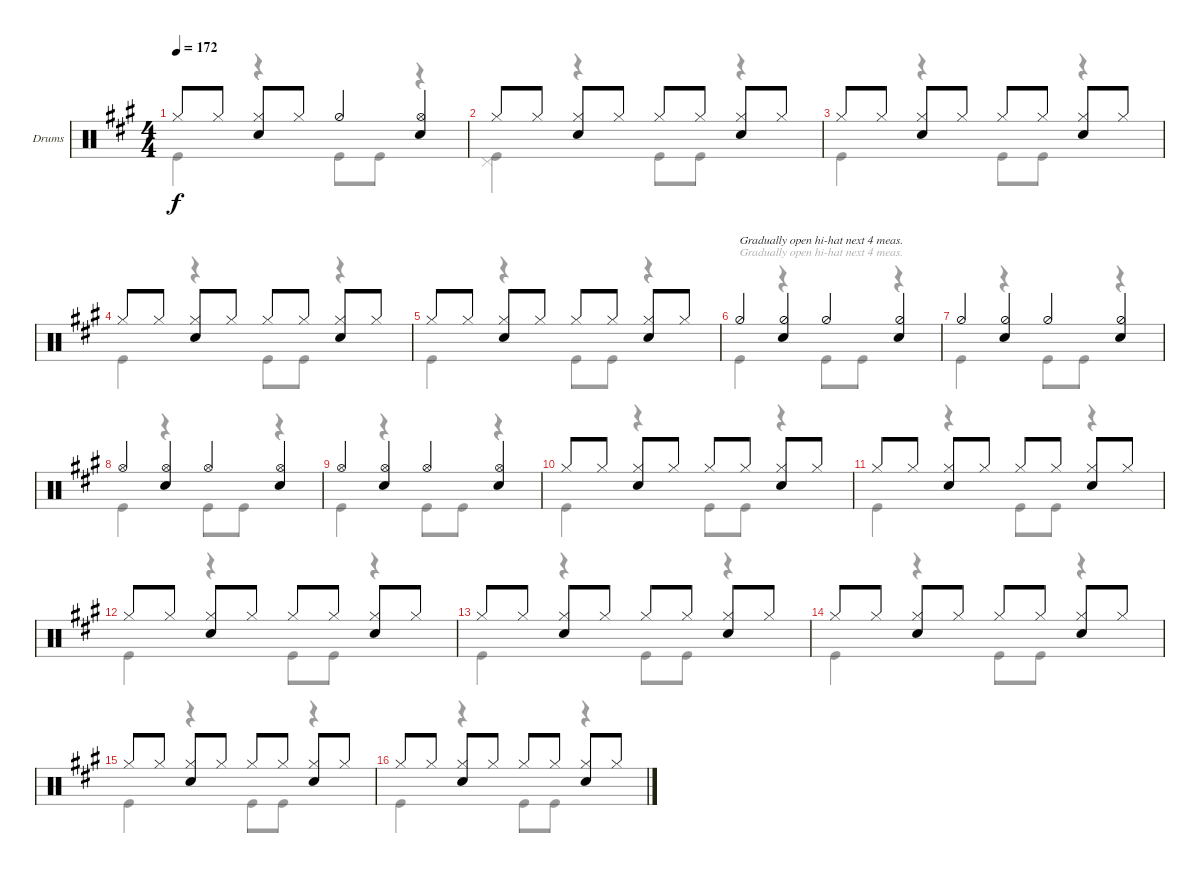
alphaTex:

\defaultSystemsLayout 4
\bracketExtendMode groupsimilarinstruments
\firstSystemTrackNameOrientation horizontal
\otherSystemsTrackNameOrientation horizontal
\track ("Taylor Hawkins" "Drums") {instrument percussion}
\staff {score}
\articulation defaults
\voice
\ts (4 4)
\tempo 172
\clef neutral
\scale
0.333333
\ks a "Hi-Hat (closed)".8{dy f} "Hi-Hat (closed)".8
("Hi-Hat (closed)" "Snare (hit) 2").8 "Hi-Hat (closed)".8 "Hi-Hat (half)".4 ("Hi-Hat (open)" "Snare (hit) 2").4 |
\scale
0.333333 "Hi-Hat (closed)".8 "Hi-Hat (closed)".8 ("Hi-Hat (closed)" "Snare (hit) 2").8 "Hi-Hat (closed)".8 "Hi-Hat (closed)".8 "Hi-Hat (closed)".8 ("Hi-Hat (closed)" "Snare (hit) 2").8 "Hi-Hat (closed)".8 |
\scale
0.333333 "Hi-Hat (closed)".8 "Hi-Hat (closed)".8 ("Hi-Hat (closed)" "Snare (hit) 2").8 "Hi-Hat (closed)".8 "Hi-Hat (closed)".8 "Hi-Hat (closed)".8 ("Hi-Hat (closed)" "Snare (hit) 2").8 "Hi-Hat (closed)".8 |
\scale
0.333333 "Hi-Hat (closed)".8 "Hi-Hat (closed)".8 ("Hi-Hat (closed)" "Snare (hit) 2").8 "Hi-Hat (closed)".8 "Hi-Hat (closed)".8 "Hi-Hat (closed)".8 ("Hi-Hat (closed)" "Snare (hit) 2").8 "Hi-Hat (closed)".8 |
\scale
0.333333 "Hi-Hat (closed)".8 "Hi-Hat (closed)".8 ("Hi-Hat (closed)" "Snare (hit) 2").8 "Hi-Hat (closed)".8 "Hi-Hat (closed)".8 "Hi-Hat (closed)".8 ("Hi-Hat (closed)" "Snare (hit) 2").8 "Hi-Hat (closed)".8 |
\scale
0.333333 "Hi-Hat (half)".4{txt "Gradually open hi-hat next 4 meas."} ("Hi-Hat (half)" "Snare (hit) 2").4 "Hi-Hat (half)".4 ("Hi-Hat (half)" "Snare (hit) 2").4 |
\scale
0.322034 "Hi-Hat (half)".4 ("Hi-Hat (half)" "Snare (hit) 2").4 "Hi-Hat (half)".4 ("Hi-Hat (half)" "Snare (hit) 2").4 |
\scale
0.322034 "Hi-Hat (open)".4 ("Hi-Hat (open)" "Snare (hit) 2").4 "Hi-Hat (open)".4 ("Hi-Hat (open)" "Snare (hit) 2").4 |
\scale
0.355932 "Hi-Hat (open)".4 ("Hi-Hat (open)" "Snare (hit) 2").4 "Hi-Hat (open)".4 ("Hi-Hat (open)" "Snare (hit) 2").4 |
"Hi-Hat (closed)".8 "Hi-Hat (closed)".8 ("Hi-Hat (closed)" "Snare (hit) 2").8 "Hi-Hat (closed)".8 "Hi-Hat (closed)".8 "Hi-Hat (closed)".8 ("Hi-Hat (closed)" "Snare (hit) 2").8 "Hi-Hat (closed)".8 |
"Hi-Hat (closed)".8 "Hi-Hat (closed)".8 ("Hi-Hat (closed)" "Snare (hit) 2").8 "Hi-Hat (closed)".8 "Hi-Hat (closed)".8 "Hi-Hat (closed)".8 ("Hi-Hat (closed)" "Snare (hit) 2").8 "Hi-Hat (closed)".8 |
"Hi-Hat (closed)".8 "Hi-Hat (closed)".8 ("Hi-Hat (closed)" "Snare (hit) 2").8 "Hi-Hat (closed)".8 "Hi-Hat (closed)".8 "Hi-Hat (closed)".8 ("Hi-Hat (closed)" "Snare (hit) 2").8 "Hi-Hat (closed)".8 |
"Hi-Hat (closed)".8 "Hi-Hat (closed)".8 ("Hi-Hat (closed)" "Snare (hit) 2").8 "Hi-Hat (closed)".8 "Hi-Hat (closed)".8 "Hi-Hat (closed)".8 ("Hi-Hat (closed)" "Snare (hit) 2").8 "Hi-Hat (closed)".8 |
"Hi-Hat (closed)".8 "Hi-Hat (closed)".8 ("Hi-Hat (closed)" "Snare (hit) 2").8 "Hi-Hat (closed)".8 "Hi-Hat (closed)".8 "Hi-Hat (closed)".8 ("Hi-Hat (closed)" "Snare (hit) 2").8 "Hi-Hat (closed)".8 |
"Hi-Hat (closed)".8 "Hi-Hat (closed)".8 ("Hi-Hat (closed)" "Snare (hit) 2").8 "Hi-Hat (closed)".8 "Hi-Hat (closed)".8 "Hi-Hat (closed)".8 ("Hi-Hat (closed)" "Snare (hit) 2").8 "Hi-Hat (closed)".8 |
"Hi-Hat (closed)".8 "Hi-Hat (closed)".8 ("Hi-Hat (closed)" "Snare (hit) 2").8 "Hi-Hat (closed)".8 "Hi-Hat (closed)".8 "Hi-Hat (closed)".8 ("Hi-Hat (closed)" "Snare (hit) 2").8 "Hi-Hat (closed)".8
\voice
\clef neutral
\ottava regular
\simile none
\scale
0.333333
\ks a "Kick (hit)".4{dy f}
r.4 "Kick (hit)".8 "Kick (hit)".8 r.4 |
\scale
0.333333 ("Kick (hit)" "Pedal Hi-Hat (hit)").4 r.4 "Kick (hit)".8 "Kick (hit)".8 r.4 |
\scale
0.333333 "Kick (hit)".4 r.4 "Kick (hit)".8 "Kick (hit)".8 r.4 |
\scale
0.333333 "Kick (hit)".4 r.4 "Kick (hit)".8 "Kick (hit)".8 r.4 |
\scale
0.333333 "Kick (hit)".4 r.4 "Kick (hit)".8 "Kick (hit)".8 r.4 |
\scale
0.333333 "Kick (hit)".4{txt "Gradually open hi-hat next 4 meas."} r.4 "Kick (hit)".8 "Kick (hit)".8 r.4 |
\scale
0.322034 "Kick (hit)".4 r.4 "Kick (hit)".8 "Kick (hit)".8 r.4 |
\scale
0.322034 "Kick (hit)".4 r.4 "Kick (hit)".8 "Kick (hit)".8 r.4 |
\scale
0.355932 "Kick (hit)".4 r.4 "Kick (hit)".8 "Kick (hit)".8 r.4 |
"Kick (hit)".4 r.4 "Kick (hit)".8 "Kick (hit)".8 r.4 |
"Kick (hit)".4 r.4 "Kick (hit)".8 "Kick (hit)".8 r.4 |
"Kick (hit)".4 r.4 "Kick (hit)".8 "Kick (hit)".8 r.4 |
"Kick (hit)".4 r.4 "Kick (hit)".8 "Kick (hit)".8 r.4 |
"Kick (hit)".4 r.4 "Kick (hit)".8 "Kick (hit)".8 r.4 |
"Kick (hit)".4 r.4 "Kick (hit)".8 "Kick (hit)".8 r.4 |
"Kick (hit)".4 r.4 "Kick (hit)".8 "Kick (hit)".8 r.4
